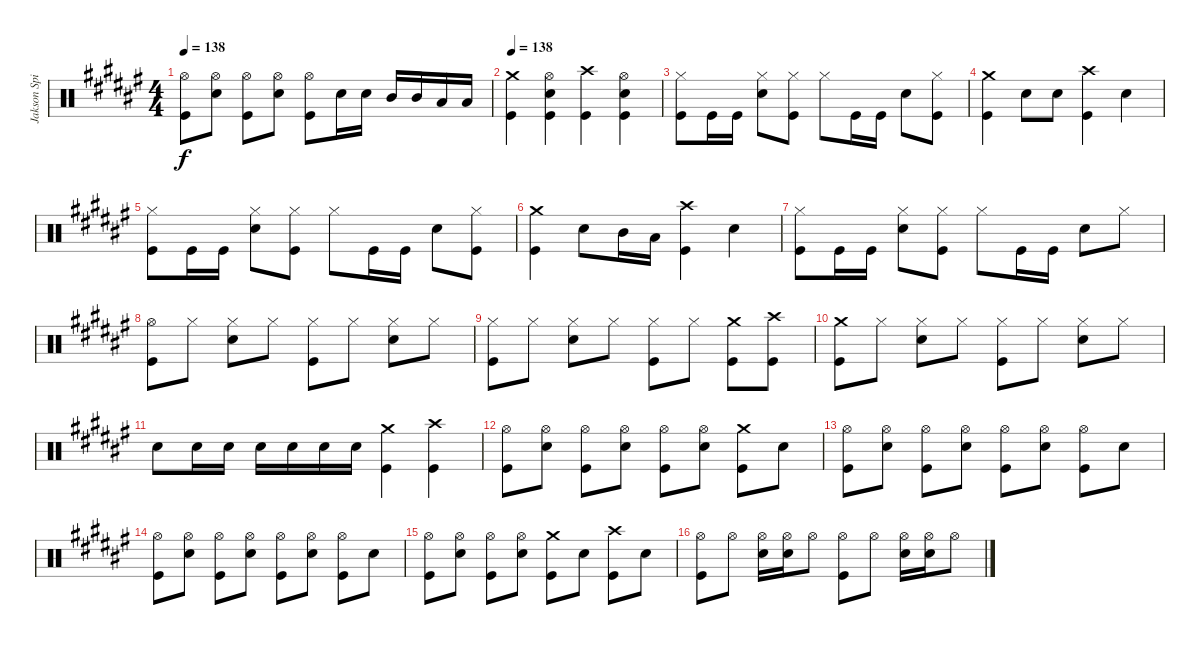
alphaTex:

\track ("Jakson Spires" "Jakson Spi") {instrument percussion}
\staff {score}
\articulation defaults
\ts (4 4)
\tempo 138
\clef neutral
\ks f#
("Hi-Hat (open)" "Kick (hit)").8{dy f} ("Hi-Hat (open)" "Snare (hit) 2").8 ("Hi-Hat (open)" "Kick (hit)").8 ("Hi-Hat (open)" "Snare (hit) 2").8 ("Hi-Hat (open)" "Kick (hit)").8 "Snare (hit) 2".16 "Snare (hit) 2".16 "Mid Tom (hit)".16 "Mid Tom (hit)".16 "Low Tom (hit)".16 "Low Tom (hit)".16 |
\tempo 138
("Crash medium (hit)" "Kick (hit)").4 ("Hi-Hat (open)" "Snare (hit) 2" "Kick (hit)").4 ("Crash high (hit)" "Kick (hit)").4 ("Hi-Hat (open)" "Snare (hit) 2" "Kick (hit)").4 |
("Hi-Hat (closed)" "Kick (hit)").8 "Kick (hit)".16 "Kick (hit)".16 ("Hi-Hat (closed)" "Snare (hit) 2").8 ("Hi-Hat (closed)" "Kick (hit)").8 "Hi-Hat (closed)".8 "Kick (hit)".16 "Kick (hit)".16 "Snare (hit) 2".8 ("Hi-Hat (closed)" "Kick (hit)").8 |
("Crash medium (hit)" "Kick (hit)").4 "Snare (hit) 2".8 "Snare (hit) 2".8 ("Crash high (hit)" "Kick (hit)").4 "Snare (hit) 2".4 |
("Hi-Hat (closed)" "Kick (hit)").8 "Kick (hit)".16 "Kick (hit)".16 ("Hi-Hat (closed)" "Snare (hit) 2").8 ("Hi-Hat (closed)" "Kick (hit)").8 "Hi-Hat (closed)".8 "Kick (hit)".16 "Kick (hit)".16 "Snare (hit) 2".8 ("Hi-Hat (closed)" "Kick (hit)").8 |
("Crash medium (hit)" "Kick (hit)").4 "Snare (hit) 2".8 "Mid Tom (hit)".16 "Low Tom (hit)".16 ("Crash high (hit)" "Kick (hit)").4 "Snare (hit) 2".4 |
("Hi-Hat (closed)" "Kick (hit)").8 "Kick (hit)".16 "Kick (hit)".16 ("Hi-Hat (closed)" "Snare (hit) 2").8 ("Hi-Hat (closed)" "Kick (hit)").8 "Hi-Hat (closed)".8 "Kick (hit)".16 "Kick (hit)".16 "Snare (hit) 2".8 "Hi-Hat (closed)".8 |
("Hi-Hat (open)" "Kick (hit)").8 "Hi-Hat (closed)".8 ("Hi-Hat (closed)" "Snare (hit) 2").8 "Hi-Hat (closed)".8 ("Hi-Hat (closed)" "Kick (hit)").8 "Hi-Hat (closed)".8 ("Hi-Hat (closed)" "Snare (hit) 2").8 "Hi-Hat (closed)".8 |
("Hi-Hat (closed)" "Kick (hit)").8 "Hi-Hat (closed)".8 ("Hi-Hat (closed)" "Snare (hit) 2").8 "Hi-Hat (closed)".8 ("Hi-Hat (closed)" "Kick (hit)").8 "Hi-Hat (closed)".8 ("Crash medium (hit)" "Kick (hit)").8 ("Crash high (hit)" "Kick (hit)").8 |
("Crash medium (hit)" "Kick (hit)").8 "Hi-Hat (closed)".8 ("Hi-Hat (closed)" "Snare (hit) 2").8 "Hi-Hat (closed)".8 ("Hi-Hat (closed)" "Kick (hit)").8 "Hi-Hat (closed)".8 ("Hi-Hat (closed)" "Snare (hit) 2").8 "Hi-Hat (closed)".8 |
"Snare (hit) 2".8 "Snare (hit) 2".16 "Snare (hit) 2".16 "Snare (hit) 2".16 "Snare (hit) 2".16 "Snare (hit) 2".16 "Snare (hit) 2".16 ("Crash medium (hit)" "Kick (hit)").4 ("Crash high (hit)" "Kick (hit)").4 |
("Hi-Hat (open)" "Kick (hit)").8 ("Hi-Hat (open)" "Snare (hit) 2").8 ("Hi-Hat (open)" "Kick (hit)").8 ("Hi-Hat (open)" "Snare (hit) 2").8 ("Hi-Hat (open)" "Kick (hit)").8 ("Hi-Hat (open)" "Snare (hit) 2").8 ("Crash medium (hit)" "Kick (hit)").8 "Snare (hit) 2".8 |
("Hi-Hat (open)" "Kick (hit)").8 ("Hi-Hat (open)" "Snare (hit) 2").8 ("Hi-Hat (open)" "Kick (hit)").8 ("Hi-Hat (open)" "Snare (hit) 2").8 ("Hi-Hat (open)" "Kick (hit)").8 ("Hi-Hat (open)" "Snare (hit) 2").8 ("Hi-Hat (open)" "Kick (hit)").8 "Snare (hit) 2".8 |
("Hi-Hat (open)" "Kick (hit)").8 ("Hi-Hat (open)" "Snare (hit) 2").8 ("Hi-Hat (open)" "Kick (hit)").8 ("Hi-Hat (open)" "Snare (hit) 2").8 ("Hi-Hat (open)" "Kick (hit)").8 ("Hi-Hat (open)" "Snare (hit) 2").8 ("Hi-Hat (open)" "Kick (hit)").8 "Snare (hit) 2".8 |
("Hi-Hat (open)" "Kick (hit)").8 ("Hi-Hat (open)" "Snare (hit) 2").8 ("Hi-Hat (open)" "Kick (hit)").8 ("Hi-Hat (open)" "Snare (hit) 2").8 ("Crash medium (hit)" "Kick (hit)").8 "Snare (hit) 2".8 ("Crash high (hit)" "Kick (hit)").8 "Snare (hit) 2".8 |
("Hi-Hat (open)" "Kick (hit)").8 "Hi-Hat (open)".8 ("Hi-Hat (open)" "Snare (hit) 2").16 ("Hi-Hat (open)" "Snare (hit) 2").16 "Hi-Hat (open)".8 ("Hi-Hat (open)" "Kick (hit)").8 "Hi-Hat (open)".8 ("Hi-Hat (open)" "Snare (hit) 2").16 ("Hi-Hat (open)" "Snare (hit) 2").16 "Hi-Hat (open)".8
